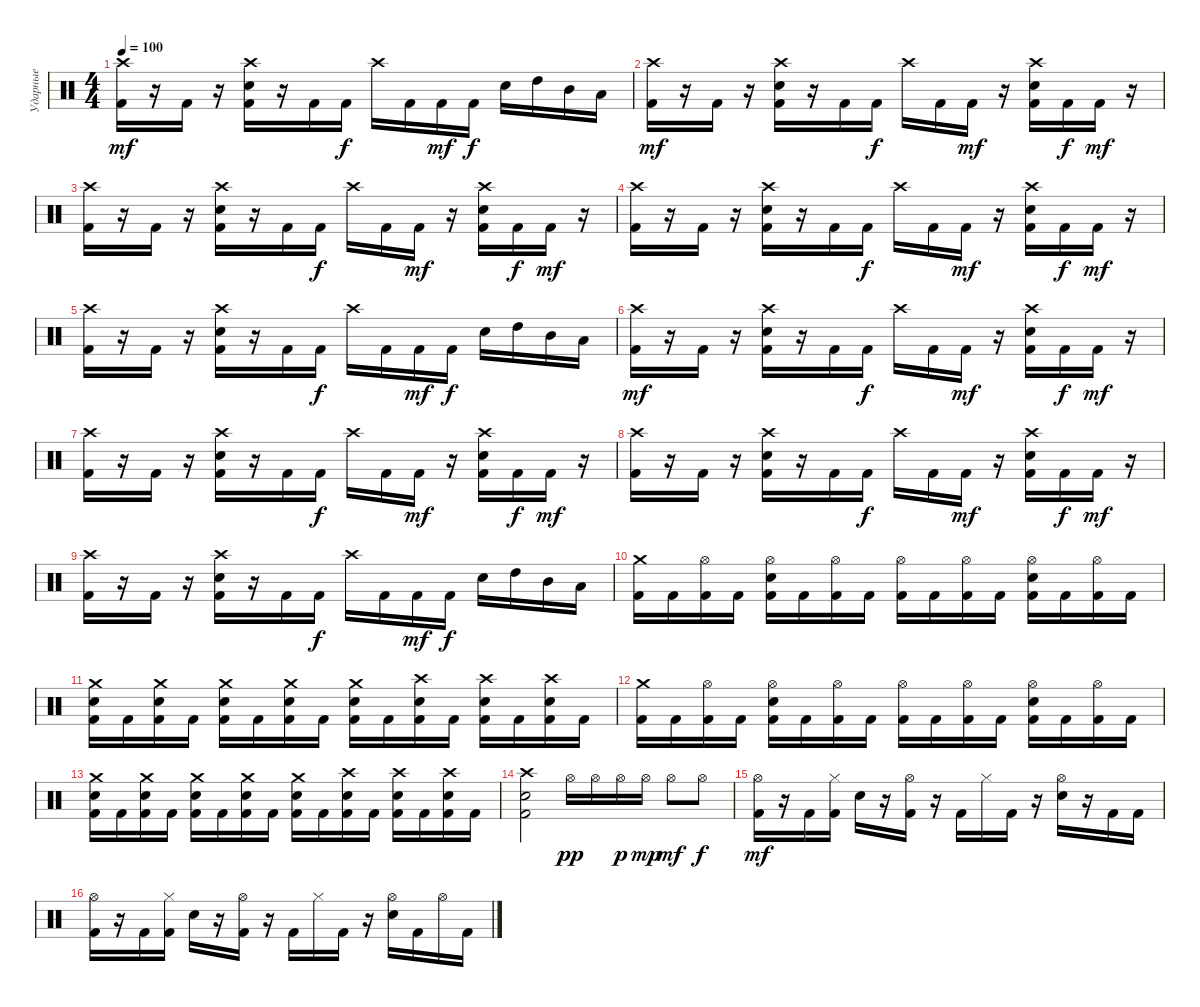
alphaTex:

\track ("Ударные" "Ударные") {instrument percussion}
\staff {score}
\articulation defaults
\ts (4 4)
\tempo 100
\clef neutral
\ks c
("Crash high (hit)" "Kick (hit) 2").16{dy mf} r.16 "Kick (hit) 2".16 r.16 ("Crash high (hit)" "Electric Snare (hit)" "Kick (hit) 2").16 r.16 "Kick (hit) 2".16 "Kick (hit) 2".16{dy f} "Crash high (hit)".16 "Kick (hit) 2".16 "Kick (hit) 2".16{dy mf} "Kick (hit) 2".16{dy f} "Electric Snare (hit)".16 "High Tom (hit)".16 "Mid Tom (hit)".16 "Low Tom (hit)".16 |
("Crash high (hit)" "Kick (hit) 2").16{dy mf} r.16 "Kick (hit) 2".16 r.16 ("Crash high (hit)" "Electric Snare (hit)" "Kick (hit) 2").16 r.16 "Kick (hit) 2".16 "Kick (hit) 2".16{dy f} "Crash high (hit)".16 "Kick (hit) 2".16 "Kick (hit) 2".16{dy mf} r.16 ("Crash high (hit)" "Electric Snare (hit)" "Kick (hit) 2").16 "Kick (hit) 2".16{dy f} "Kick (hit) 2".16{dy mf} r.16 |
("Crash high (hit)" "Kick (hit) 2").16 r.16 "Kick (hit) 2".16 r.16 ("Crash high (hit)" "Electric Snare (hit)" "Kick (hit) 2").16 r.16 "Kick (hit) 2".16 "Kick (hit) 2".16{dy f} "Crash high (hit)".16 "Kick (hit) 2".16 "Kick (hit) 2".16{dy mf} r.16 ("Crash high (hit)" "Electric Snare (hit)" "Kick (hit) 2").16 "Kick (hit) 2".16{dy f} "Kick (hit) 2".16{dy mf} r.16 |
("Crash high (hit)" "Kick (hit) 2").16 r.16 "Kick (hit) 2".16 r.16 ("Crash high (hit)" "Electric Snare (hit)" "Kick (hit) 2").16 r.16 "Kick (hit) 2".16 "Kick (hit) 2".16{dy f} "Crash high (hit)".16 "Kick (hit) 2".16 "Kick (hit) 2".16{dy mf} r.16 ("Crash high (hit)" "Electric Snare (hit)" "Kick (hit) 2").16 "Kick (hit) 2".16{dy f} "Kick (hit) 2".16{dy mf} r.16 |
("Crash high (hit)" "Kick (hit) 2").16 r.16 "Kick (hit) 2".16 r.16 ("Crash high (hit)" "Electric Snare (hit)" "Kick (hit) 2").16 r.16 "Kick (hit) 2".16 "Kick (hit) 2".16{dy f} "Crash high (hit)".16 "Kick (hit) 2".16 "Kick (hit) 2".16{dy mf} "Kick (hit) 2".16{dy f} "Electric Snare (hit)".16 "High Tom (hit)".16 "Mid Tom (hit)".16 "Low Tom (hit)".16 |
("Crash high (hit)" "Kick (hit) 2").16{dy mf} r.16 "Kick (hit) 2".16 r.16 ("Crash high (hit)" "Electric Snare (hit)" "Kick (hit) 2").16 r.16 "Kick (hit) 2".16 "Kick (hit) 2".16{dy f} "Crash high (hit)".16 "Kick (hit) 2".16 "Kick (hit) 2".16{dy mf} r.16 ("Crash high (hit)" "Electric Snare (hit)" "Kick (hit) 2").16 "Kick (hit) 2".16{dy f} "Kick (hit) 2".16{dy mf} r.16 |
("Crash high (hit)" "Kick (hit) 2").16 r.16 "Kick (hit) 2".16 r.16 ("Crash high (hit)" "Electric Snare (hit)" "Kick (hit) 2").16 r.16 "Kick (hit) 2".16 "Kick (hit) 2".16{dy f} "Crash high (hit)".16 "Kick (hit) 2".16 "Kick (hit) 2".16{dy mf} r.16 ("Crash high (hit)" "Electric Snare (hit)" "Kick (hit) 2").16 "Kick (hit) 2".16{dy f} "Kick (hit) 2".16{dy mf} r.16 |
("Crash high (hit)" "Kick (hit) 2").16 r.16 "Kick (hit) 2".16 r.16 ("Crash high (hit)" "Electric Snare (hit)" "Kick (hit) 2").16 r.16 "Kick (hit) 2".16 "Kick (hit) 2".16{dy f} "Crash high (hit)".16 "Kick (hit) 2".16 "Kick (hit) 2".16{dy mf} r.16 ("Crash high (hit)" "Electric Snare (hit)" "Kick (hit) 2").16 "Kick (hit) 2".16{dy f} "Kick (hit) 2".16{dy mf} r.16 |
("Crash high (hit)" "Kick (hit) 2").16 r.16 "Kick (hit) 2".16 r.16 ("Crash high (hit)" "Electric Snare (hit)" "Kick (hit) 2").16 r.16 "Kick (hit) 2".16 "Kick (hit) 2".16{dy f} "Crash high (hit)".16 "Kick (hit) 2".16 "Kick (hit) 2".16{dy mf} "Kick (hit) 2".16{dy f} "Electric Snare (hit)".16 "High Tom (hit)".16 "Mid Tom (hit)".16 "Low Tom (hit)".16 |
("Crash medium (hit)" "Kick (hit) 2").16 "Kick (hit) 2".16 ("Hi-Hat (open)" "Kick (hit) 2").16 "Kick (hit) 2".16 ("Hi-Hat (open)" "Electric Snare (hit)" "Kick (hit) 2").16 "Kick (hit) 2".16 ("Hi-Hat (open)" "Kick (hit) 2").16 "Kick (hit) 2".16 ("Hi-Hat (open)" "Kick (hit) 2").16 "Kick (hit) 2".16 ("Hi-Hat (open)" "Kick (hit) 2").16 "Kick (hit) 2".16 ("Hi-Hat (open)" "Electric Snare (hit)" "Kick (hit) 2").16 "Kick (hit) 2".16 ("Hi-Hat (open)" "Kick (hit) 2").16 "Kick (hit) 2".16 |
("Crash medium (hit)" "Electric Snare (hit)" "Kick (hit) 2").16 "Kick (hit) 2".16 ("Crash medium (hit)" "Electric Snare (hit)" "Kick (hit) 2").16 "Kick (hit) 2".16 ("Crash medium (hit)" "Electric Snare (hit)" "Kick (hit) 2").16 "Kick (hit) 2".16 ("Crash medium (hit)" "Electric Snare (hit)" "Kick (hit) 2").16 "Kick (hit) 2".16 ("Crash medium (hit)" "Electric Snare (hit)" "Kick (hit) 2").16 "Kick (hit) 2".16 ("Crash high (hit)" "Electric Snare (hit)" "Kick (hit) 2").16 "Kick (hit) 2".16 ("Crash high (hit)" "Electric Snare (hit)" "Kick (hit) 2").16 "Kick (hit) 2".16 ("Crash high (hit)" "Electric Snare (hit)" "Kick (hit) 2").16 "Kick (hit) 2".16 |
("Crash medium (hit)" "Kick (hit) 2").16 "Kick (hit) 2".16 ("Hi-Hat (open)" "Kick (hit) 2").16 "Kick (hit) 2".16 ("Hi-Hat (open)" "Electric Snare (hit)" "Kick (hit) 2").16 "Kick (hit) 2".16 ("Hi-Hat (open)" "Kick (hit) 2").16 "Kick (hit) 2".16 ("Hi-Hat (open)" "Kick (hit) 2").16 "Kick (hit) 2".16 ("Hi-Hat (open)" "Kick (hit) 2").16 "Kick (hit) 2".16 ("Hi-Hat (open)" "Electric Snare (hit)" "Kick (hit) 2").16 "Kick (hit) 2".16 ("Hi-Hat (open)" "Kick (hit) 2").16 "Kick (hit) 2".16 |
("Crash medium (hit)" "Electric Snare (hit)" "Kick (hit) 2").16 "Kick (hit) 2".16 ("Crash medium (hit)" "Electric Snare (hit)" "Kick (hit) 2").16 "Kick (hit) 2".16 ("Crash medium (hit)" "Electric Snare (hit)" "Kick (hit) 2").16 "Kick (hit) 2".16 ("Crash medium (hit)" "Electric Snare (hit)" "Kick (hit) 2").16 "Kick (hit) 2".16 ("Crash medium (hit)" "Electric Snare (hit)" "Kick (hit) 2").16 "Kick (hit) 2".16 ("Crash high (hit)" "Electric Snare (hit)" "Kick (hit) 2").16 "Kick (hit) 2".16 ("Crash high (hit)" "Electric Snare (hit)" "Kick (hit) 2").16 "Kick (hit) 2".16 ("Crash high (hit)" "Electric Snare (hit)" "Kick (hit) 2").16 "Kick (hit) 2".16 |
("Crash high (hit)" "Electric Snare (hit)" "Kick (hit) 2").2 "Hi-Hat (open)".16{dy pp} "Hi-Hat (open)".16 "Hi-Hat (open)".16{dy p} "Hi-Hat (open)".16{dy mp} "Hi-Hat (open)".8{dy mf} "Hi-Hat (open)".8{dy f} |
("Hi-Hat (open)" "Kick (hit) 2").16{dy mf} r.16 "Kick (hit) 2".16 ("Hi-Hat (closed)" "Kick (hit) 2").16 "Electric Snare (hit)".16 r.16 ("Hi-Hat (open)" "Kick (hit) 2").16 r.16 "Kick (hit) 2".16 "Hi-Hat (closed)".16 "Kick (hit) 2".16 r.16 ("Hi-Hat (open)" "Electric Snare (hit)").16 r.16 "Kick (hit) 2".16 "Kick (hit) 2".16 |
("Hi-Hat (open)" "Kick (hit) 2").16 r.16 "Kick (hit) 2".16 ("Hi-Hat (closed)" "Kick (hit) 2").16 "Electric Snare (hit)".16 r.16 ("Hi-Hat (open)" "Kick (hit) 2").16 r.16 "Kick (hit) 2".16 "Hi-Hat (closed)".16 "Kick (hit) 2".16 r.16 ("Hi-Hat (open)" "Electric Snare (hit)").16 "Kick (hit) 2".16 "Hi-Hat (open)".16 "Kick (hit) 2".16
